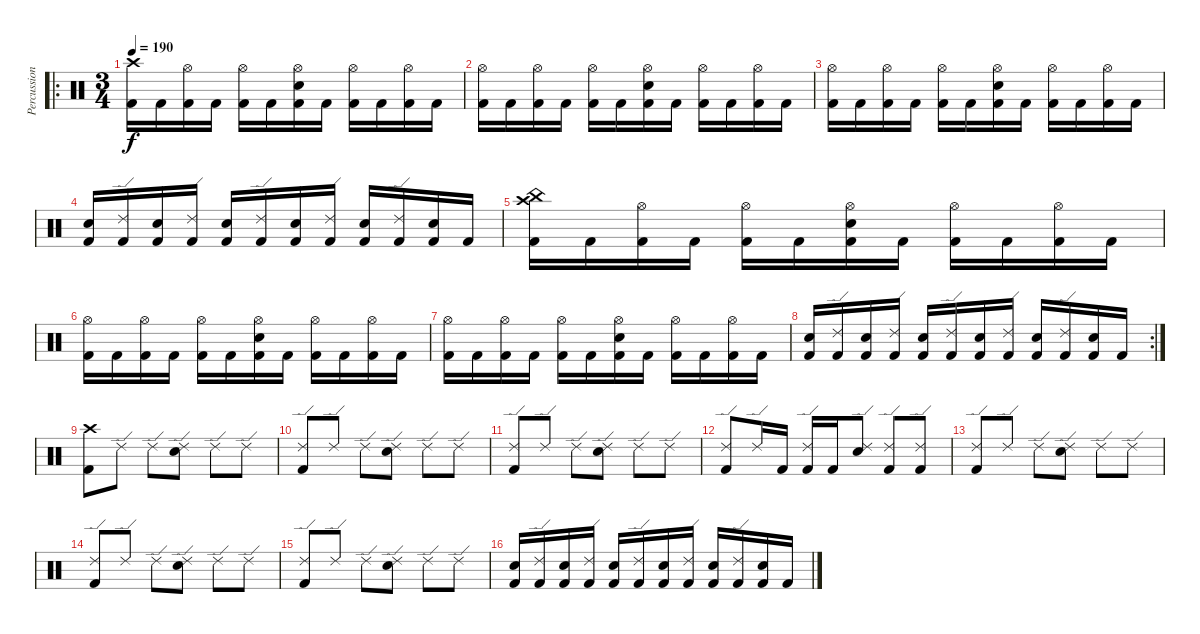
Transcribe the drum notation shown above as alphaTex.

\track ("Percussion" "Percussion") {instrument percussion}
\staff {score}
\articulation defaults
\ro
\ts (3 4)
\tempo 190
\clef neutral
\ks c
("Crash high (hit)" "Kick (hit) 2").16{dy f} "Kick (hit) 2".16 ("Hi-Hat (open)" "Kick (hit) 2").16 "Kick (hit) 2".16 ("Hi-Hat (open)" "Kick (hit) 2").16 "Kick (hit) 2".16 ("Hi-Hat (open)" "Electric Snare (hit)" "Kick (hit) 2").16 "Kick (hit) 2".16 ("Hi-Hat (open)" "Kick (hit) 2").16 "Kick (hit) 2".16 ("Hi-Hat (open)" "Kick (hit) 2").16 "Kick (hit) 2".16 |
("Hi-Hat (open)" "Kick (hit) 2").16 "Kick (hit) 2".16 ("Hi-Hat (open)" "Kick (hit) 2").16 "Kick (hit) 2".16 ("Hi-Hat (open)" "Kick (hit) 2").16 "Kick (hit) 2".16 ("Hi-Hat (open)" "Electric Snare (hit)" "Kick (hit) 2").16 "Kick (hit) 2".16 ("Hi-Hat (open)" "Kick (hit) 2").16 "Kick (hit) 2".16 ("Hi-Hat (open)" "Kick (hit) 2").16 "Kick (hit) 2".16 |
("Hi-Hat (open)" "Kick (hit) 2").16 "Kick (hit) 2".16 ("Hi-Hat (open)" "Kick (hit) 2").16 "Kick (hit) 2".16 ("Hi-Hat (open)" "Kick (hit) 2").16 "Kick (hit) 2".16 ("Hi-Hat (open)" "Electric Snare (hit)" "Kick (hit) 2").16 "Kick (hit) 2".16 ("Hi-Hat (open)" "Kick (hit) 2").16 "Kick (hit) 2".16 ("Hi-Hat (open)" "Kick (hit) 2").16 "Kick (hit) 2".16 |
("Electric Snare (hit)" "Kick (hit) 2").16 ("Ride (edge) 2" "Kick (hit) 2").16 ("Electric Snare (hit)" "Kick (hit) 2").16 ("Ride (edge) 2" "Kick (hit) 2").16 ("Electric Snare (hit)" "Kick (hit) 2").16 ("Ride (edge) 2" "Kick (hit) 2").16 ("Electric Snare (hit)" "Kick (hit) 2").16 ("Ride (edge) 2" "Kick (hit) 2").16 ("Electric Snare (hit)" "Kick (hit) 2").16 ("Ride (edge) 2" "Kick (hit) 2").16 ("Electric Snare (hit)" "Kick (hit) 2").16 "Kick (hit) 2".16 |
("Crash high (hit)" "China (hit)" "Kick (hit) 2").16 "Kick (hit) 2".16 ("Hi-Hat (open)" "Kick (hit) 2").16 "Kick (hit) 2".16 ("Hi-Hat (open)" "Kick (hit) 2").16 "Kick (hit) 2".16 ("Hi-Hat (open)" "Electric Snare (hit)" "Kick (hit) 2").16 "Kick (hit) 2".16 ("Hi-Hat (open)" "Kick (hit) 2").16 "Kick (hit) 2".16 ("Hi-Hat (open)" "Kick (hit) 2").16 "Kick (hit) 2".16 |
("Hi-Hat (open)" "Kick (hit) 2").16 "Kick (hit) 2".16 ("Hi-Hat (open)" "Kick (hit) 2").16 "Kick (hit) 2".16 ("Hi-Hat (open)" "Kick (hit) 2").16 "Kick (hit) 2".16 ("Hi-Hat (open)" "Electric Snare (hit)" "Kick (hit) 2").16 "Kick (hit) 2".16 ("Hi-Hat (open)" "Kick (hit) 2").16 "Kick (hit) 2".16 ("Hi-Hat (open)" "Kick (hit) 2").16 "Kick (hit) 2".16 |
("Hi-Hat (open)" "Kick (hit) 2").16 "Kick (hit) 2".16 ("Hi-Hat (open)" "Kick (hit) 2").16 "Kick (hit) 2".16 ("Hi-Hat (open)" "Kick (hit) 2").16 "Kick (hit) 2".16 ("Hi-Hat (open)" "Electric Snare (hit)" "Kick (hit) 2").16 "Kick (hit) 2".16 ("Hi-Hat (open)" "Kick (hit) 2").16 "Kick (hit) 2".16 ("Hi-Hat (open)" "Kick (hit) 2").16 "Kick (hit) 2".16 |
\rc 2
("Electric Snare (hit)" "Kick (hit) 2").16 ("Ride (edge) 2" "Kick (hit) 2").16 ("Electric Snare (hit)" "Kick (hit) 2").16 ("Ride (edge) 2" "Kick (hit) 2").16 ("Electric Snare (hit)" "Kick (hit) 2").16 ("Ride (edge) 2" "Kick (hit) 2").16 ("Electric Snare (hit)" "Kick (hit) 2").16 ("Ride (edge) 2" "Kick (hit) 2").16 ("Electric Snare (hit)" "Kick (hit) 2").16 ("Ride (edge) 2" "Kick (hit) 2").16 ("Electric Snare (hit)" "Kick (hit) 2").16 "Kick (hit) 2".16 |
("Crash high (hit)" "Kick (hit) 2").8 "Ride (edge) 2".8 "Ride (edge) 2".8 ("Ride (edge) 2" "Electric Snare (hit)").8 "Ride (edge) 2".8 "Ride (edge) 2".8 |
("Ride (edge) 2" "Kick (hit) 2").8 "Ride (edge) 2".8 "Ride (edge) 2".8 ("Ride (edge) 2" "Electric Snare (hit)").8 "Ride (edge) 2".8 "Ride (edge) 2".8 |
("Ride (edge) 2" "Kick (hit) 2").8 "Ride (edge) 2".8 "Ride (edge) 2".8 ("Ride (edge) 2" "Electric Snare (hit)").8 "Ride (edge) 2".8 "Ride (edge) 2".8 |
("Ride (edge) 2" "Kick (hit) 2").8 "Ride (edge) 2".16 "Kick (hit) 2".16 ("Ride (edge) 2" "Kick (hit) 2").16 "Kick (hit) 2".16 ("Ride (edge) 2" "Electric Snare (hit)").8 ("Ride (edge) 2" "Kick (hit) 2").8 ("Ride (edge) 2" "Kick (hit) 2").8 |
("Ride (edge) 2" "Kick (hit) 2").8 "Ride (edge) 2".8 "Ride (edge) 2".8 ("Ride (edge) 2" "Electric Snare (hit)").8 "Ride (edge) 2".8 "Ride (edge) 2".8 |
("Ride (edge) 2" "Kick (hit) 2").8 "Ride (edge) 2".8 "Ride (edge) 2".8 ("Ride (edge) 2" "Electric Snare (hit)").8 "Ride (edge) 2".8 "Ride (edge) 2".8 |
("Ride (edge) 2" "Kick (hit) 2").8 "Ride (edge) 2".8 "Ride (edge) 2".8 ("Ride (edge) 2" "Electric Snare (hit)").8 "Ride (edge) 2".8 "Ride (edge) 2".8 |
("Electric Snare (hit)" "Kick (hit) 2").16 ("Ride (edge) 2" "Kick (hit) 2").16 ("Electric Snare (hit)" "Kick (hit) 2").16 ("Ride (edge) 2" "Kick (hit) 2").16 ("Electric Snare (hit)" "Kick (hit) 2").16 ("Ride (edge) 2" "Kick (hit) 2").16 ("Electric Snare (hit)" "Kick (hit) 2").16 ("Ride (edge) 2" "Kick (hit) 2").16 ("Electric Snare (hit)" "Kick (hit) 2").16 ("Ride (edge) 2" "Kick (hit) 2").16 ("Electric Snare (hit)" "Kick (hit) 2").16 "Kick (hit) 2".16
